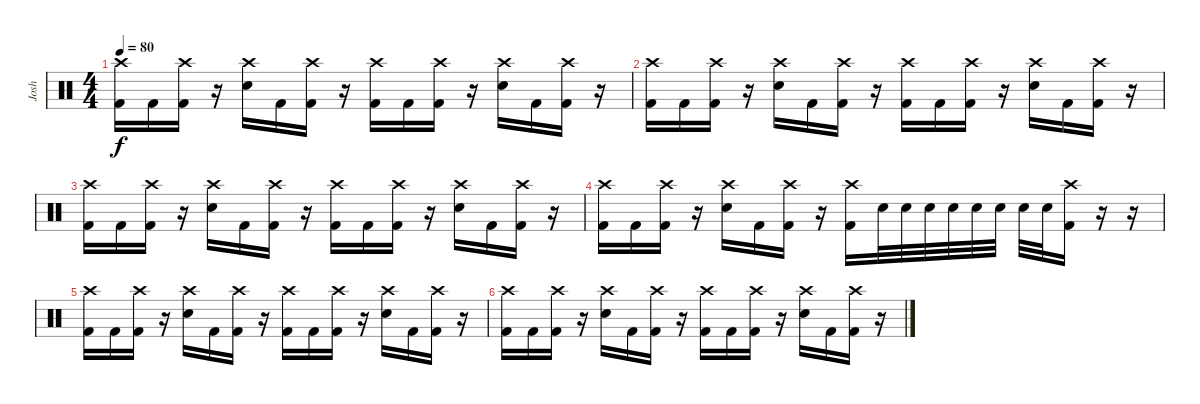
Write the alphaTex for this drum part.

\track ("Josh" "Josh") {instrument percussion}
\staff {score}
\articulation defaults
\ts (4 4)
\tempo 80
\clef neutral
\ks c
("Crash high (hit)" "Kick (hit) 2").16{dy f volume 7} "Kick (hit) 2".16 ("Crash high (hit)" "Kick (hit) 2").16 r.16 ("Crash high (hit)" "Electric Snare (hit)").16 "Kick (hit) 2".16 ("Crash high (hit)" "Kick (hit) 2").16 r.16 ("Crash high (hit)" "Kick (hit) 2").16 "Kick (hit) 2".16 ("Crash high (hit)" "Kick (hit) 2").16 r.16 ("Crash high (hit)" "Electric Snare (hit)").16 "Kick (hit) 2".16 ("Crash high (hit)" "Kick (hit) 2").16 r.16 |
("Crash high (hit)" "Kick (hit) 2").16 "Kick (hit) 2".16 ("Crash high (hit)" "Kick (hit) 2").16 r.16 ("Crash high (hit)" "Electric Snare (hit)").16 "Kick (hit) 2".16 ("Crash high (hit)" "Kick (hit) 2").16 r.16 ("Crash high (hit)" "Kick (hit) 2").16 "Kick (hit) 2".16 ("Crash high (hit)" "Kick (hit) 2").16 r.16 ("Crash high (hit)" "Electric Snare (hit)").16 "Kick (hit) 2".16 ("Crash high (hit)" "Kick (hit) 2").16 r.16 |
("Crash high (hit)" "Kick (hit) 2").16 "Kick (hit) 2".16 ("Crash high (hit)" "Kick (hit) 2").16 r.16 ("Crash high (hit)" "Electric Snare (hit)").16 "Kick (hit) 2".16 ("Crash high (hit)" "Kick (hit) 2").16 r.16 ("Crash high (hit)" "Kick (hit) 2").16 "Kick (hit) 2".16 ("Crash high (hit)" "Kick (hit) 2").16 r.16 ("Crash high (hit)" "Electric Snare (hit)").16 "Kick (hit) 2".16 ("Crash high (hit)" "Kick (hit) 2").16 r.16 |
("Crash high (hit)" "Kick (hit) 2").16 "Kick (hit) 2".16 ("Crash high (hit)" "Kick (hit) 2").16 r.16 ("Crash high (hit)" "Electric Snare (hit)").16 "Kick (hit) 2".16 ("Crash high (hit)" "Kick (hit) 2").16 r.16 ("Crash high (hit)" "Kick (hit) 2").16 "Electric Snare (hit)".32 "Electric Snare (hit)".32 "Electric Snare (hit)".32 "Electric Snare (hit)".32 "Electric Snare (hit)".32 "Electric Snare (hit)".32 "Electric Snare (hit)".32 "Electric Snare (hit)".32 ("Crash high (hit)" "Kick (hit) 2").16 r.16 r.16 |
("Crash high (hit)" "Kick (hit) 2").16{volume 0} "Kick (hit) 2".16 ("Crash high (hit)" "Kick (hit) 2").16 r.16 ("Crash high (hit)" "Electric Snare (hit)").16 "Kick (hit) 2".16 ("Crash high (hit)" "Kick (hit) 2").16 r.16 ("Crash high (hit)" "Kick (hit) 2").16 "Kick (hit) 2".16 ("Crash high (hit)" "Kick (hit) 2").16 r.16 ("Crash high (hit)" "Electric Snare (hit)").16 "Kick (hit) 2".16 ("Crash high (hit)" "Kick (hit) 2").16 r.16 |
("Crash high (hit)" "Kick (hit) 2").16 "Kick (hit) 2".16 ("Crash high (hit)" "Kick (hit) 2").16 r.16 ("Crash high (hit)" "Electric Snare (hit)").16 "Kick (hit) 2".16 ("Crash high (hit)" "Kick (hit) 2").16 r.16 ("Crash high (hit)" "Kick (hit) 2").16 "Kick (hit) 2".16 ("Crash high (hit)" "Kick (hit) 2").16 r.16 ("Crash high (hit)" "Electric Snare (hit)").16 "Kick (hit) 2".16 ("Crash high (hit)" "Kick (hit) 2").16 r.16
